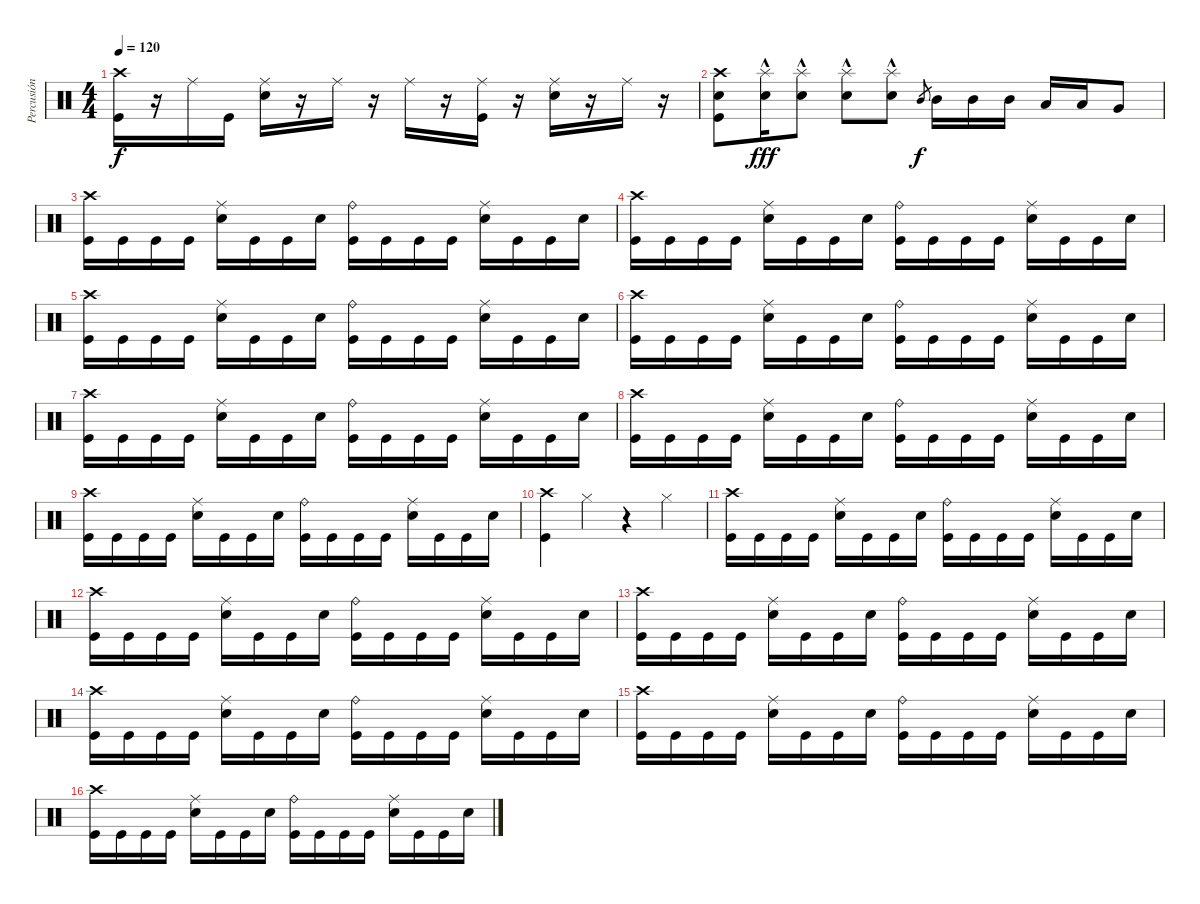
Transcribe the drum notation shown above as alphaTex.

\track ("Percusión" "Percusión") {instrument percussion}
\staff {score}
\articulation defaults
\ts (4 4)
\tempo 120
\clef neutral
\ks c
("Crash high (hit)" "Kick (hit)").16{dy f} r.16 "Ride (middle)".16 "Kick (hit)".16 ("Ride (middle)" "Snare (hit) 2").16 r.16 "Ride (middle)".16 r.16 "Ride (middle)".16 r.16 ("Ride (middle)" "Kick (hit)").16 r.16 ("Ride (middle)" "Snare (hit) 2").16 r.16 "Ride (middle)".16 r.16 |
("Crash high (hit)" "Snare (hit) 2" "Kick (hit)").8 ("Splash (hit)"{hac} "Snare (hit) 2").16{dy fff} ("Splash (hit)"{hac} "Snare (hit) 2").8 ("Splash (hit)"{hac} "Snare (hit) 2").8 ("Splash (hit)"{hac} "Snare (hit) 2").8 "Mid Tom (hit)".8{gr dy f} "Mid Tom (hit)".16 "Mid Tom (hit)".16 "Mid Tom (hit)".16 "Low Tom (hit)".16 "Low Tom (hit)".16 "Very Low Tom (hit)".8 |
("Crash high (hit)" "Kick (hit)").16 "Kick (hit)".16 "Kick (hit)".16 "Kick (hit)".16 ("Ride (middle)" "Snare (hit) 2").16 "Kick (hit)".16 "Kick (hit)".16 "Snare (hit) 2".16 ("Ride (bell)" "Kick (hit)").16 "Kick (hit)".16 "Kick (hit)".16 "Kick (hit)".16 ("Ride (middle)" "Snare (hit) 2").16 "Kick (hit)".16 "Kick (hit)".16 "Snare (hit) 2".16 |
("Crash high (hit)" "Kick (hit)").16 "Kick (hit)".16 "Kick (hit)".16 "Kick (hit)".16 ("Ride (middle)" "Snare (hit) 2").16 "Kick (hit)".16 "Kick (hit)".16 "Snare (hit) 2".16 ("Ride (bell)" "Kick (hit)").16 "Kick (hit)".16 "Kick (hit)".16 "Kick (hit)".16 ("Ride (middle)" "Snare (hit) 2").16 "Kick (hit)".16 "Kick (hit)".16 "Snare (hit) 2".16 |
("Crash high (hit)" "Kick (hit)").16 "Kick (hit)".16 "Kick (hit)".16 "Kick (hit)".16 ("Ride (middle)" "Snare (hit) 2").16 "Kick (hit)".16 "Kick (hit)".16 "Snare (hit) 2".16 ("Ride (bell)" "Kick (hit)").16 "Kick (hit)".16 "Kick (hit)".16 "Kick (hit)".16 ("Ride (middle)" "Snare (hit) 2").16 "Kick (hit)".16 "Kick (hit)".16 "Snare (hit) 2".16 |
("Crash high (hit)" "Kick (hit)").16 "Kick (hit)".16 "Kick (hit)".16 "Kick (hit)".16 ("Ride (middle)" "Snare (hit) 2").16 "Kick (hit)".16 "Kick (hit)".16 "Snare (hit) 2".16 ("Ride (bell)" "Kick (hit)").16 "Kick (hit)".16 "Kick (hit)".16 "Kick (hit)".16 ("Ride (middle)" "Snare (hit) 2").16 "Kick (hit)".16 "Kick (hit)".16 "Snare (hit) 2".16 |
("Crash high (hit)" "Kick (hit)").16 "Kick (hit)".16 "Kick (hit)".16 "Kick (hit)".16 ("Ride (middle)" "Snare (hit) 2").16 "Kick (hit)".16 "Kick (hit)".16 "Snare (hit) 2".16 ("Ride (bell)" "Kick (hit)").16 "Kick (hit)".16 "Kick (hit)".16 "Kick (hit)".16 ("Ride (middle)" "Snare (hit) 2").16 "Kick (hit)".16 "Kick (hit)".16 "Snare (hit) 2".16 |
("Crash high (hit)" "Kick (hit)").16 "Kick (hit)".16 "Kick (hit)".16 "Kick (hit)".16 ("Ride (middle)" "Snare (hit) 2").16 "Kick (hit)".16 "Kick (hit)".16 "Snare (hit) 2".16 ("Ride (bell)" "Kick (hit)").16 "Kick (hit)".16 "Kick (hit)".16 "Kick (hit)".16 ("Ride (middle)" "Snare (hit) 2").16 "Kick (hit)".16 "Kick (hit)".16 "Snare (hit) 2".16 |
("Crash high (hit)" "Kick (hit)").16 "Kick (hit)".16 "Kick (hit)".16 "Kick (hit)".16 ("Ride (middle)" "Snare (hit) 2").16 "Kick (hit)".16 "Kick (hit)".16 "Snare (hit) 2".16 ("Ride (bell)" "Kick (hit)").16 "Kick (hit)".16 "Kick (hit)".16 "Kick (hit)".16 ("Ride (middle)" "Snare (hit) 2").16 "Kick (hit)".16 "Kick (hit)".16 "Snare (hit) 2".16 |
("Crash high (hit)" "Kick (hit)").4 "Hi-Hat (closed)".4 r.4 "Hi-Hat (closed)".4 |
("Crash high (hit)" "Kick (hit)").16 "Kick (hit)".16 "Kick (hit)".16 "Kick (hit)".16 ("Ride (middle)" "Snare (hit) 2").16 "Kick (hit)".16 "Kick (hit)".16 "Snare (hit) 2".16 ("Ride (bell)" "Kick (hit)").16 "Kick (hit)".16 "Kick (hit)".16 "Kick (hit)".16 ("Ride (middle)" "Snare (hit) 2").16 "Kick (hit)".16 "Kick (hit)".16 "Snare (hit) 2".16 |
("Crash high (hit)" "Kick (hit)").16 "Kick (hit)".16 "Kick (hit)".16 "Kick (hit)".16 ("Ride (middle)" "Snare (hit) 2").16 "Kick (hit)".16 "Kick (hit)".16 "Snare (hit) 2".16 ("Ride (bell)" "Kick (hit)").16 "Kick (hit)".16 "Kick (hit)".16 "Kick (hit)".16 ("Ride (middle)" "Snare (hit) 2").16 "Kick (hit)".16 "Kick (hit)".16 "Snare (hit) 2".16 |
("Crash high (hit)" "Kick (hit)").16 "Kick (hit)".16 "Kick (hit)".16 "Kick (hit)".16 ("Ride (middle)" "Snare (hit) 2").16 "Kick (hit)".16 "Kick (hit)".16 "Snare (hit) 2".16 ("Ride (bell)" "Kick (hit)").16 "Kick (hit)".16 "Kick (hit)".16 "Kick (hit)".16 ("Ride (middle)" "Snare (hit) 2").16 "Kick (hit)".16 "Kick (hit)".16 "Snare (hit) 2".16 |
("Crash high (hit)" "Kick (hit)").16 "Kick (hit)".16 "Kick (hit)".16 "Kick (hit)".16 ("Ride (middle)" "Snare (hit) 2").16 "Kick (hit)".16 "Kick (hit)".16 "Snare (hit) 2".16 ("Ride (bell)" "Kick (hit)").16 "Kick (hit)".16 "Kick (hit)".16 "Kick (hit)".16 ("Ride (middle)" "Snare (hit) 2").16 "Kick (hit)".16 "Kick (hit)".16 "Snare (hit) 2".16 |
("Crash high (hit)" "Kick (hit)").16 "Kick (hit)".16 "Kick (hit)".16 "Kick (hit)".16 ("Ride (middle)" "Snare (hit) 2").16 "Kick (hit)".16 "Kick (hit)".16 "Snare (hit) 2".16 ("Ride (bell)" "Kick (hit)").16 "Kick (hit)".16 "Kick (hit)".16 "Kick (hit)".16 ("Ride (middle)" "Snare (hit) 2").16 "Kick (hit)".16 "Kick (hit)".16 "Snare (hit) 2".16 |
("Crash high (hit)" "Kick (hit)").16 "Kick (hit)".16 "Kick (hit)".16 "Kick (hit)".16 ("Ride (middle)" "Snare (hit) 2").16 "Kick (hit)".16 "Kick (hit)".16 "Snare (hit) 2".16 ("Ride (bell)" "Kick (hit)").16 "Kick (hit)".16 "Kick (hit)".16 "Kick (hit)".16 ("Ride (middle)" "Snare (hit) 2").16 "Kick (hit)".16 "Kick (hit)".16 "Snare (hit) 2".16
